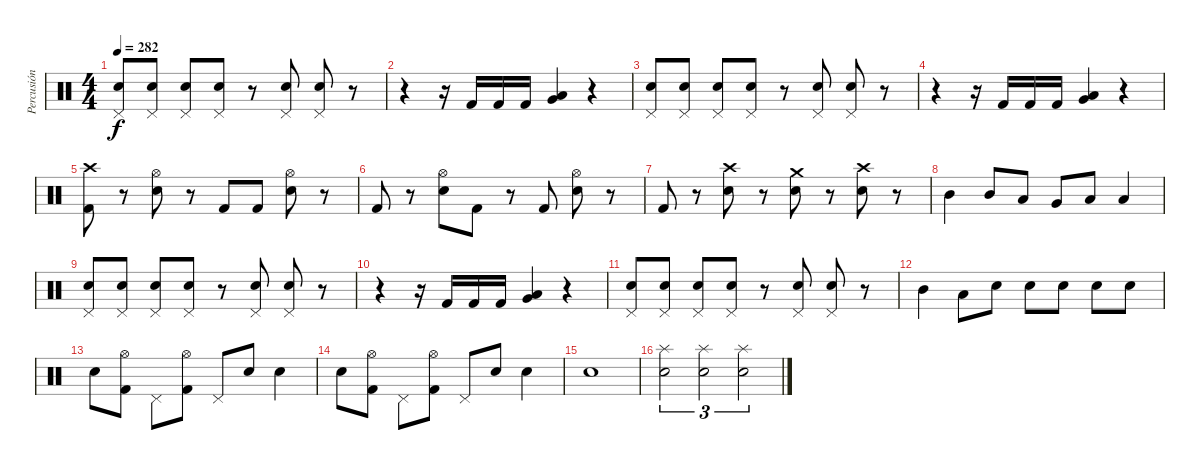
\track ("Percusión" "Percusión") {instrument percussion}
\staff {score}
\articulation defaults
\ts (4 4)
\tempo 282
\clef neutral
\ks c
("Snare (hit) 2" "Pedal Hi-Hat (hit)").8{dy f} ("Snare (hit) 2" "Pedal Hi-Hat (hit)").8 ("Snare (hit) 2" "Pedal Hi-Hat (hit)").8 ("Snare (hit) 2" "Pedal Hi-Hat (hit)").8 r.8 ("Snare (hit) 2" "Pedal Hi-Hat (hit)").8 ("Snare (hit) 2" "Pedal Hi-Hat (hit)").8 r.8 |
r.4 r.16 "Kick (hit) 2".16 "Kick (hit) 2".16 "Kick (hit) 2".16 ("Low Tom (hit)" "Very Low Tom (hit)").4 r.4 |
("Snare (hit) 2" "Pedal Hi-Hat (hit)").8 ("Snare (hit) 2" "Pedal Hi-Hat (hit)").8 ("Snare (hit) 2" "Pedal Hi-Hat (hit)").8 ("Snare (hit) 2" "Pedal Hi-Hat (hit)").8 r.8 ("Snare (hit) 2" "Pedal Hi-Hat (hit)").8 ("Snare (hit) 2" "Pedal Hi-Hat (hit)").8 r.8 |
r.4 r.16 "Kick (hit) 2".16 "Kick (hit) 2".16 "Kick (hit) 2".16 ("Very Low Tom (hit)" "Low Floor Tom (hit)").4 r.4 |
("Kick (hit) 2" "Crash high (hit)").8 r.8 ("Snare (hit) 2" "Hi-Hat (open)").8 r.8 "Kick (hit) 2".8 "Kick (hit) 2".8 ("Snare (hit) 2" "Hi-Hat (open)").8 r.8 |
"Kick (hit) 2".8 r.8 ("Snare (hit) 2" "Hi-Hat (open)").8 "Kick (hit) 2".8 r.8 "Kick (hit) 2".8 ("Snare (hit) 2" "Hi-Hat (open)").8 r.8 |
"Kick (hit) 2".8 r.8 ("Snare (hit) 2" "Crash high (hit)").8 r.8 ("Snare (hit) 2" "Crash medium (hit)").8 r.8 ("Snare (hit) 2" "Crash high (hit)").8 r.8 |
"Mid Tom (hit)".4 "Mid Tom (hit)".8 "Low Tom (hit)".8 "Very Low Tom (hit)".8 "Low Floor Tom (hit)".8 "Low Floor Tom (hit)".4 |
("Snare (hit) 2" "Pedal Hi-Hat (hit)").8 ("Snare (hit) 2" "Pedal Hi-Hat (hit)").8 ("Snare (hit) 2" "Pedal Hi-Hat (hit)").8 ("Snare (hit) 2" "Pedal Hi-Hat (hit)").8 r.8 ("Snare (hit) 2" "Pedal Hi-Hat (hit)").8 ("Snare (hit) 2" "Pedal Hi-Hat (hit)").8 r.8 |
r.4 r.16 "Kick (hit) 2".16 "Kick (hit) 2".16 "Kick (hit) 2".16 ("Very Low Tom (hit)" "Low Floor Tom (hit)").4 r.4 |
("Snare (hit) 2" "Pedal Hi-Hat (hit)").8 ("Snare (hit) 2" "Pedal Hi-Hat (hit)").8 ("Snare (hit) 2" "Pedal Hi-Hat (hit)").8 ("Snare (hit) 2" "Pedal Hi-Hat (hit)").8 r.8 ("Snare (hit) 2" "Pedal Hi-Hat (hit)").8 ("Snare (hit) 2" "Pedal Hi-Hat (hit)").8 r.8 |
"Mid Tom (hit)".4 "Low Tom (hit)".8 "Snare (hit) 2".8 "Snare (hit) 2".8 "Snare (hit) 2".8 "Snare (hit) 2".8 "Snare (hit) 2".8 |
"Snare (hit) 2".8 ("Kick (hit) 2" "Hi-Hat (open)").8 "Pedal Hi-Hat (hit)".8 ("Kick (hit) 2" "Hi-Hat (open)").8 "Pedal Hi-Hat (hit)".8 "Snare (hit) 2".8 "Snare (hit) 2".4 |
"Snare (hit) 2".8 ("Kick (hit) 2" "Hi-Hat (open)").8 "Pedal Hi-Hat (hit)".8 ("Kick (hit) 2" "Hi-Hat (open)").8 "Pedal Hi-Hat (hit)".8 "Snare (hit) 2".8 "Snare (hit) 2".4 |
"Snare (hit) 2".1 |
("Snare (hit) 2" "Splash (hit)").2{tu (3 2)} ("Snare (hit) 2" "Splash (hit)").2{tu (3 2)} ("Snare (hit) 2" "Splash (hit)").2{tu (3 2)}
